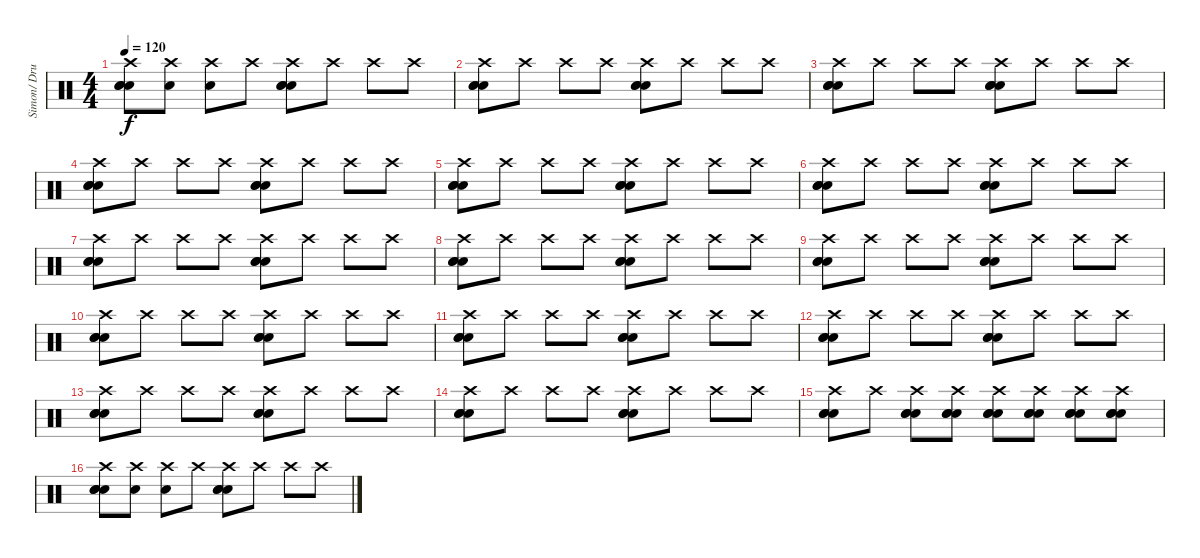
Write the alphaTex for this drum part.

\track ("Simon/ Drums" "Simon/ Dru") {instrument percussion}
\staff {score}
\articulation defaults
\ts (4 4)
\tempo 120
\clef neutral
\ks c
("Crash high (hit)" "Snare (hit) 2" "Snare (hit) 2" "Snare (hit) 2").8{dy f} ("Crash high (hit)" "Electric Snare (hit)").8 ("Crash high (hit)" "Electric Snare (hit)").8 "Crash high (hit)".8 ("Crash high (hit)" "Snare (hit) 2" "Snare (hit) 2" "Snare (hit) 2").8 "Crash high (hit)".8 "Crash high (hit)".8 "Crash high (hit)".8 |
("Crash high (hit)" "Snare (hit) 2" "Snare (hit) 2" "Snare (hit) 2").8 "Crash high (hit)".8 "Crash high (hit)".8 "Crash high (hit)".8 ("Crash high (hit)" "Snare (hit) 2" "Snare (hit) 2" "Snare (hit) 2").8 "Crash high (hit)".8 "Crash high (hit)".8 "Crash high (hit)".8 |
("Crash high (hit)" "Snare (hit) 2" "Snare (hit) 2" "Snare (hit) 2").8 "Crash high (hit)".8 "Crash high (hit)".8 "Crash high (hit)".8 ("Crash high (hit)" "Snare (hit) 2" "Snare (hit) 2" "Snare (hit) 2").8 "Crash high (hit)".8 "Crash high (hit)".8 "Crash high (hit)".8 |
("Crash high (hit)" "Snare (hit) 2" "Snare (hit) 2" "Snare (hit) 2").8 "Crash high (hit)".8 "Crash high (hit)".8 "Crash high (hit)".8 ("Crash high (hit)" "Snare (hit) 2" "Snare (hit) 2" "Snare (hit) 2").8 "Crash high (hit)".8 "Crash high (hit)".8 "Crash high (hit)".8 |
("Crash high (hit)" "Snare (hit) 2" "Snare (hit) 2" "Snare (hit) 2").8 "Crash high (hit)".8 "Crash high (hit)".8 "Crash high (hit)".8 ("Crash high (hit)" "Snare (hit) 2" "Snare (hit) 2" "Snare (hit) 2").8 "Crash high (hit)".8 "Crash high (hit)".8 "Crash high (hit)".8 |
("Crash high (hit)" "Snare (hit) 2" "Snare (hit) 2" "Snare (hit) 2").8 "Crash high (hit)".8 "Crash high (hit)".8 "Crash high (hit)".8 ("Crash high (hit)" "Snare (hit) 2" "Snare (hit) 2" "Snare (hit) 2").8 "Crash high (hit)".8 "Crash high (hit)".8 "Crash high (hit)".8 |
("Crash high (hit)" "Snare (hit) 2" "Snare (hit) 2" "Snare (hit) 2").8 "Crash high (hit)".8 "Crash high (hit)".8 "Crash high (hit)".8 ("Crash high (hit)" "Snare (hit) 2" "Snare (hit) 2" "Snare (hit) 2").8 "Crash high (hit)".8 "Crash high (hit)".8 "Crash high (hit)".8 |
("Crash high (hit)" "Snare (hit) 2" "Snare (hit) 2" "Snare (hit) 2").8 "Crash high (hit)".8 "Crash high (hit)".8 "Crash high (hit)".8 ("Crash high (hit)" "Snare (hit) 2" "Snare (hit) 2" "Snare (hit) 2").8 "Crash high (hit)".8 "Crash high (hit)".8 "Crash high (hit)".8 |
("Crash high (hit)" "Snare (hit) 2" "Snare (hit) 2" "Snare (hit) 2").8 "Crash high (hit)".8 "Crash high (hit)".8 "Crash high (hit)".8 ("Crash high (hit)" "Snare (hit) 2" "Snare (hit) 2" "Snare (hit) 2").8 "Crash high (hit)".8 "Crash high (hit)".8 "Crash high (hit)".8 |
("Crash high (hit)" "Snare (hit) 2" "Snare (hit) 2" "Snare (hit) 2").8 "Crash high (hit)".8 "Crash high (hit)".8 "Crash high (hit)".8 ("Crash high (hit)" "Snare (hit) 2" "Snare (hit) 2" "Snare (hit) 2").8 "Crash high (hit)".8 "Crash high (hit)".8 "Crash high (hit)".8 |
("Crash high (hit)" "Snare (hit) 2" "Snare (hit) 2" "Snare (hit) 2").8 "Crash high (hit)".8 "Crash high (hit)".8 "Crash high (hit)".8 ("Crash high (hit)" "Snare (hit) 2" "Snare (hit) 2" "Snare (hit) 2").8 "Crash high (hit)".8 "Crash high (hit)".8 "Crash high (hit)".8 |
("Crash high (hit)" "Snare (hit) 2" "Snare (hit) 2" "Snare (hit) 2").8 "Crash high (hit)".8 "Crash high (hit)".8 "Crash high (hit)".8 ("Crash high (hit)" "Snare (hit) 2" "Snare (hit) 2" "Snare (hit) 2").8 "Crash high (hit)".8 "Crash high (hit)".8 "Crash high (hit)".8 |
("Crash high (hit)" "Snare (hit) 2" "Snare (hit) 2" "Snare (hit) 2").8 "Crash high (hit)".8 "Crash high (hit)".8 "Crash high (hit)".8 ("Crash high (hit)" "Snare (hit) 2" "Snare (hit) 2" "Snare (hit) 2").8 "Crash high (hit)".8 "Crash high (hit)".8 "Crash high (hit)".8 |
("Crash high (hit)" "Snare (hit) 2" "Snare (hit) 2" "Snare (hit) 2").8 "Crash high (hit)".8 "Crash high (hit)".8 "Crash high (hit)".8 ("Crash high (hit)" "Snare (hit) 2" "Snare (hit) 2" "Snare (hit) 2").8 "Crash high (hit)".8 "Crash high (hit)".8 "Crash high (hit)".8 |
("Crash high (hit)" "Snare (hit) 2" "Snare (hit) 2" "Snare (hit) 2").8 "Crash high (hit)".8 ("Crash high (hit)" "Snare (hit) 2" "Snare (hit) 2" "Snare (hit) 2").8 ("Crash high (hit)" "Snare (hit) 2" "Snare (hit) 2" "Snare (hit) 2").8 ("Crash high (hit)" "Snare (hit) 2" "Snare (hit) 2" "Snare (hit) 2").8 ("Crash high (hit)" "Snare (hit) 2" "Snare (hit) 2" "Snare (hit) 2").8 ("Crash high (hit)" "Snare (hit) 2" "Snare (hit) 2" "Snare (hit) 2").8 ("Crash high (hit)" "Snare (hit) 2" "Snare (hit) 2" "Snare (hit) 2").8 |
("Crash high (hit)" "Snare (hit) 2" "Snare (hit) 2" "Snare (hit) 2").8 ("Crash high (hit)" "Electric Snare (hit)").8 ("Crash high (hit)" "Electric Snare (hit)").8 "Crash high (hit)".8 ("Crash high (hit)" "Snare (hit) 2" "Snare (hit) 2" "Snare (hit) 2").8 "Crash high (hit)".8 "Crash high (hit)".8 "Crash high (hit)".8
